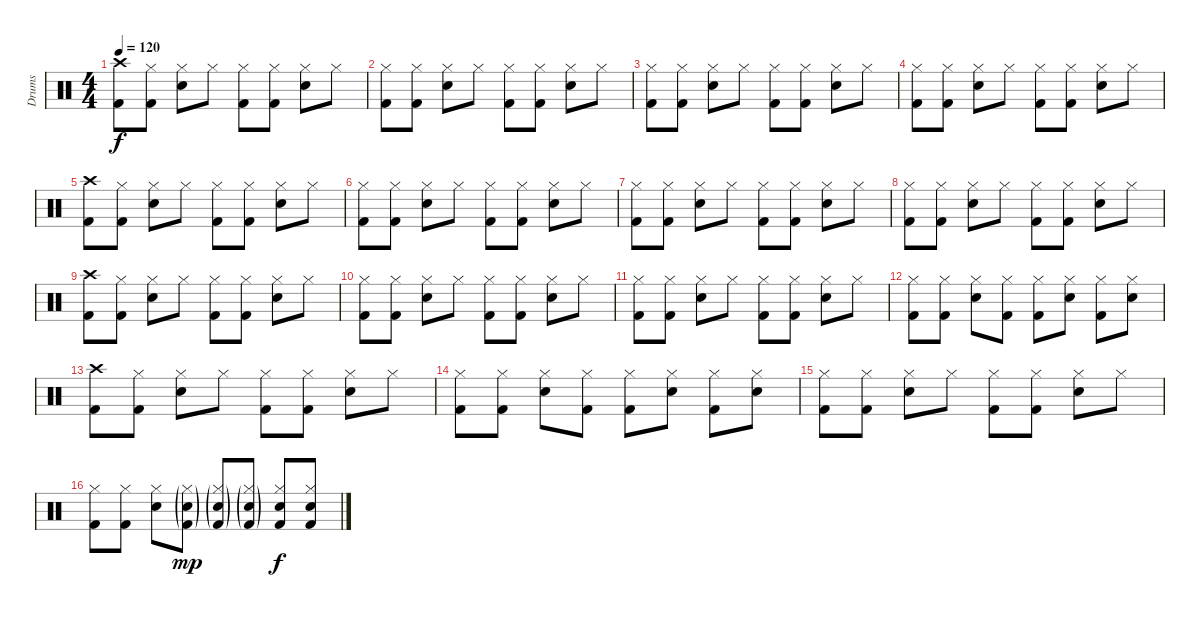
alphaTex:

\track ("Drums" "Drums") {instrument percussion}
\staff {score}
\articulation defaults
\ts (4 4)
\tempo 120
\clef neutral
\ks c
("Crash high (hit)" "Kick (hit) 2").8{dy f} ("Hi-Hat (closed)" "Kick (hit) 2").8 ("Hi-Hat (closed)" "Electric Snare (hit)").8 "Hi-Hat (closed)".8 ("Hi-Hat (closed)" "Kick (hit) 2").8 ("Hi-Hat (closed)" "Kick (hit) 2").8 ("Hi-Hat (closed)" "Electric Snare (hit)").8 "Hi-Hat (closed)".8 |
("Hi-Hat (closed)" "Kick (hit) 2").8 ("Hi-Hat (closed)" "Kick (hit) 2").8 ("Hi-Hat (closed)" "Electric Snare (hit)").8 "Hi-Hat (closed)".8 ("Hi-Hat (closed)" "Kick (hit) 2").8 ("Hi-Hat (closed)" "Kick (hit) 2").8 ("Hi-Hat (closed)" "Electric Snare (hit)").8 "Hi-Hat (closed)".8 |
("Hi-Hat (closed)" "Kick (hit) 2").8 ("Hi-Hat (closed)" "Kick (hit) 2").8 ("Hi-Hat (closed)" "Electric Snare (hit)").8 "Hi-Hat (closed)".8 ("Hi-Hat (closed)" "Kick (hit) 2").8 ("Hi-Hat (closed)" "Kick (hit) 2").8 ("Hi-Hat (closed)" "Electric Snare (hit)").8 "Hi-Hat (closed)".8 |
("Hi-Hat (closed)" "Kick (hit) 2").8 ("Hi-Hat (closed)" "Kick (hit) 2").8 ("Hi-Hat (closed)" "Electric Snare (hit)").8 "Hi-Hat (closed)".8 ("Hi-Hat (closed)" "Kick (hit) 2").8 ("Hi-Hat (closed)" "Kick (hit) 2").8 ("Hi-Hat (closed)" "Electric Snare (hit)").8 "Hi-Hat (closed)".8 |
("Crash high (hit)" "Kick (hit) 2").8 ("Hi-Hat (closed)" "Kick (hit) 2").8 ("Hi-Hat (closed)" "Electric Snare (hit)").8 "Hi-Hat (closed)".8 ("Hi-Hat (closed)" "Kick (hit) 2").8 ("Hi-Hat (closed)" "Kick (hit) 2").8 ("Hi-Hat (closed)" "Electric Snare (hit)").8 "Hi-Hat (closed)".8 |
("Hi-Hat (closed)" "Kick (hit) 2").8 ("Hi-Hat (closed)" "Kick (hit) 2").8 ("Hi-Hat (closed)" "Electric Snare (hit)").8 "Hi-Hat (closed)".8 ("Hi-Hat (closed)" "Kick (hit) 2").8 ("Hi-Hat (closed)" "Kick (hit) 2").8 ("Hi-Hat (closed)" "Electric Snare (hit)").8 "Hi-Hat (closed)".8 |
("Hi-Hat (closed)" "Kick (hit) 2").8 ("Hi-Hat (closed)" "Kick (hit) 2").8 ("Hi-Hat (closed)" "Electric Snare (hit)").8 "Hi-Hat (closed)".8 ("Hi-Hat (closed)" "Kick (hit) 2").8 ("Hi-Hat (closed)" "Kick (hit) 2").8 ("Hi-Hat (closed)" "Electric Snare (hit)").8 "Hi-Hat (closed)".8 |
("Hi-Hat (closed)" "Kick (hit) 2").8 ("Hi-Hat (closed)" "Kick (hit) 2").8 ("Hi-Hat (closed)" "Electric Snare (hit)").8 "Hi-Hat (closed)".8 ("Hi-Hat (closed)" "Kick (hit) 2").8 ("Hi-Hat (closed)" "Kick (hit) 2").8 ("Hi-Hat (closed)" "Electric Snare (hit)").8 "Hi-Hat (closed)".8 |
("Crash high (hit)" "Kick (hit) 2").8 ("Hi-Hat (closed)" "Kick (hit) 2").8 ("Hi-Hat (closed)" "Electric Snare (hit)").8 "Hi-Hat (closed)".8 ("Hi-Hat (closed)" "Kick (hit) 2").8 ("Hi-Hat (closed)" "Kick (hit) 2").8 ("Hi-Hat (closed)" "Electric Snare (hit)").8 "Hi-Hat (closed)".8 |
("Hi-Hat (closed)" "Kick (hit) 2").8 ("Hi-Hat (closed)" "Kick (hit) 2").8 ("Hi-Hat (closed)" "Electric Snare (hit)").8 "Hi-Hat (closed)".8 ("Hi-Hat (closed)" "Kick (hit) 2").8 ("Hi-Hat (closed)" "Kick (hit) 2").8 ("Hi-Hat (closed)" "Electric Snare (hit)").8 "Hi-Hat (closed)".8 |
("Hi-Hat (closed)" "Kick (hit) 2").8 ("Hi-Hat (closed)" "Kick (hit) 2").8 ("Hi-Hat (closed)" "Electric Snare (hit)").8 "Hi-Hat (closed)".8 ("Hi-Hat (closed)" "Kick (hit) 2").8 ("Hi-Hat (closed)" "Kick (hit) 2").8 ("Hi-Hat (closed)" "Electric Snare (hit)").8 "Hi-Hat (closed)".8 |
("Hi-Hat (closed)" "Kick (hit) 2").8 ("Hi-Hat (closed)" "Kick (hit) 2").8 ("Hi-Hat (closed)" "Electric Snare (hit)").8 ("Hi-Hat (closed)" "Kick (hit) 2").8 ("Hi-Hat (closed)" "Kick (hit) 2").8 ("Hi-Hat (closed)" "Electric Snare (hit)").8 ("Hi-Hat (closed)" "Kick (hit) 2").8 ("Hi-Hat (closed)" "Electric Snare (hit)").8 |
("Crash high (hit)" "Kick (hit) 2").8 ("Hi-Hat (closed)" "Kick (hit) 2").8 ("Hi-Hat (closed)" "Electric Snare (hit)").8 "Hi-Hat (closed)".8 ("Hi-Hat (closed)" "Kick (hit) 2").8 ("Hi-Hat (closed)" "Kick (hit) 2").8 ("Hi-Hat (closed)" "Electric Snare (hit)").8 "Hi-Hat (closed)".8 |
("Hi-Hat (closed)" "Kick (hit) 2").8 ("Hi-Hat (closed)" "Kick (hit) 2").8 ("Hi-Hat (closed)" "Electric Snare (hit)").8 ("Hi-Hat (closed)" "Kick (hit) 2").8 ("Hi-Hat (closed)" "Kick (hit) 2").8 ("Hi-Hat (closed)" "Electric Snare (hit)").8 ("Hi-Hat (closed)" "Kick (hit) 2").8 ("Hi-Hat (closed)" "Electric Snare (hit)").8 |
("Hi-Hat (closed)" "Kick (hit) 2").8 ("Hi-Hat (closed)" "Kick (hit) 2").8 ("Hi-Hat (closed)" "Electric Snare (hit)").8 "Hi-Hat (closed)".8 ("Hi-Hat (closed)" "Kick (hit) 2").8 ("Hi-Hat (closed)" "Kick (hit) 2").8 ("Hi-Hat (closed)" "Electric Snare (hit)").8 "Hi-Hat (closed)".8 |
("Hi-Hat (closed)" "Kick (hit) 2").8 ("Hi-Hat (closed)" "Kick (hit) 2").8 ("Hi-Hat (closed)" "Electric Snare (hit)").8 ("Hi-Hat (closed)"{g} "Electric Snare (hit)"{g} "Kick (hit) 2"{g}).8{dy mp} ("Hi-Hat (closed)"{g} "Electric Snare (hit)"{g} "Kick (hit) 2"{g}).8 ("Hi-Hat (closed)"{g} "Electric Snare (hit)"{g} "Kick (hit) 2"{g}).8 ("Hi-Hat (closed)" "Electric Snare (hit)" "Kick (hit) 2").8{dy f} ("Hi-Hat (closed)" "Electric Snare (hit)" "Kick (hit) 2").8
